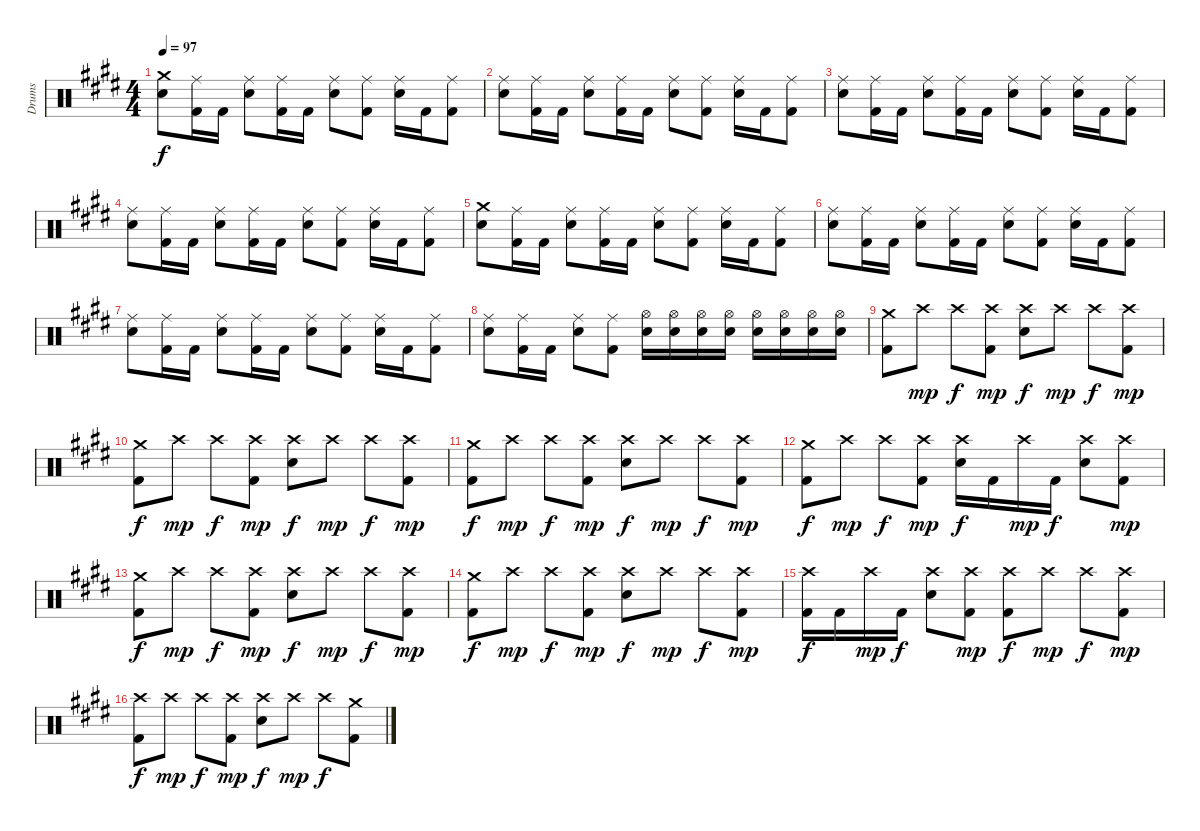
\track ("Drums" "Drums") {instrument percussion}
\staff {score}
\articulation defaults
\ts (4 4)
\tempo 97
\clef neutral
\ks e
("Electric Snare (hit)" "Crash medium (hit)").8{dy f} ("Ride (middle)" "Kick (hit) 2").16 "Kick (hit) 2".16 ("Ride (middle)" "Electric Snare (hit)").8 ("Ride (middle)" "Kick (hit) 2").16 "Kick (hit) 2".16 ("Ride (middle)" "Electric Snare (hit)").8 ("Kick (hit) 2" "Ride (middle)").8 ("Electric Snare (hit)" "Ride (middle)").16 "Kick (hit) 2".16 ("Kick (hit) 2" "Ride (middle)").8 |
("Ride (middle)" "Electric Snare (hit)").8 ("Ride (middle)" "Kick (hit) 2").16 "Kick (hit) 2".16 ("Ride (middle)" "Electric Snare (hit)").8 ("Ride (middle)" "Kick (hit) 2").16 "Kick (hit) 2".16 ("Ride (middle)" "Electric Snare (hit)").8 ("Kick (hit) 2" "Ride (middle)").8 ("Electric Snare (hit)" "Ride (middle)").16 "Kick (hit) 2".16 ("Kick (hit) 2" "Ride (middle)").8 |
("Ride (middle)" "Electric Snare (hit)").8 ("Ride (middle)" "Kick (hit) 2").16 "Kick (hit) 2".16 ("Ride (middle)" "Electric Snare (hit)").8 ("Ride (middle)" "Kick (hit) 2").16 "Kick (hit) 2".16 ("Ride (middle)" "Electric Snare (hit)").8 ("Kick (hit) 2" "Ride (middle)").8 ("Electric Snare (hit)" "Ride (middle)").16 "Kick (hit) 2".16 ("Kick (hit) 2" "Ride (middle)").8 |
("Ride (middle)" "Electric Snare (hit)").8 ("Ride (middle)" "Kick (hit) 2").16 "Kick (hit) 2".16 ("Ride (middle)" "Electric Snare (hit)").8 ("Ride (middle)" "Kick (hit) 2").16 "Kick (hit) 2".16 ("Ride (middle)" "Electric Snare (hit)").8 ("Kick (hit) 2" "Ride (middle)").8 ("Electric Snare (hit)" "Ride (middle)").16 "Kick (hit) 2".16 ("Kick (hit) 2" "Ride (middle)").8 |
("Electric Snare (hit)" "Crash medium (hit)").8 ("Ride (middle)" "Kick (hit) 2").16 "Kick (hit) 2".16 ("Ride (middle)" "Electric Snare (hit)").8 ("Ride (middle)" "Kick (hit) 2").16 "Kick (hit) 2".16 ("Ride (middle)" "Electric Snare (hit)").8 ("Kick (hit) 2" "Ride (middle)").8 ("Electric Snare (hit)" "Ride (middle)").16 "Kick (hit) 2".16 ("Kick (hit) 2" "Ride (middle)").8 |
("Ride (middle)" "Electric Snare (hit)").8 ("Ride (middle)" "Kick (hit) 2").16 "Kick (hit) 2".16 ("Ride (middle)" "Electric Snare (hit)").8 ("Ride (middle)" "Kick (hit) 2").16 "Kick (hit) 2".16 ("Ride (middle)" "Electric Snare (hit)").8 ("Kick (hit) 2" "Ride (middle)").8 ("Electric Snare (hit)" "Ride (middle)").16 "Kick (hit) 2".16 ("Kick (hit) 2" "Ride (middle)").8 |
("Ride (middle)" "Electric Snare (hit)").8 ("Ride (middle)" "Kick (hit) 2").16 "Kick (hit) 2".16 ("Ride (middle)" "Electric Snare (hit)").8 ("Ride (middle)" "Kick (hit) 2").16 "Kick (hit) 2".16 ("Ride (middle)" "Electric Snare (hit)").8 ("Kick (hit) 2" "Ride (middle)").8 ("Electric Snare (hit)" "Ride (middle)").16 "Kick (hit) 2".16 ("Kick (hit) 2" "Ride (middle)").8 |
("Ride (middle)" "Electric Snare (hit)").8 ("Ride (middle)" "Kick (hit) 2").16 "Kick (hit) 2".16 ("Ride (middle)" "Electric Snare (hit)").8 ("Ride (middle)" "Kick (hit) 2").8 ("Electric Snare (hit)" "Hi-Hat (open)").16 ("Electric Snare (hit)" "Hi-Hat (open)").16 ("Electric Snare (hit)" "Hi-Hat (open)").16 ("Electric Snare (hit)" "Hi-Hat (open)").16 ("Electric Snare (hit)" "Hi-Hat (open)").16 ("Electric Snare (hit)" "Hi-Hat (open)").16 ("Electric Snare (hit)" "Hi-Hat (open)").16 ("Electric Snare (hit)" "Hi-Hat (open)").16 |
("Crash medium (hit)" "Kick (hit) 2").8 "Crash high (hit)".8{dy mp} "Crash high (hit)".8{dy f} ("Crash high (hit)" "Kick (hit) 2").8{dy mp} ("Crash high (hit)" "Electric Snare (hit)").8{dy f} "Crash high (hit)".8{dy mp} "Crash high (hit)".8{dy f} ("Crash high (hit)" "Kick (hit) 2").8{dy mp} |
("Crash medium (hit)" "Kick (hit) 2").8{dy f} "Crash high (hit)".8{dy mp} "Crash high (hit)".8{dy f} ("Crash high (hit)" "Kick (hit) 2").8{dy mp} ("Crash high (hit)" "Electric Snare (hit)").8{dy f} "Crash high (hit)".8{dy mp} "Crash high (hit)".8{dy f} ("Crash high (hit)" "Kick (hit) 2").8{dy mp} |
("Crash medium (hit)" "Kick (hit) 2").8{dy f} "Crash high (hit)".8{dy mp} "Crash high (hit)".8{dy f} ("Crash high (hit)" "Kick (hit) 2").8{dy mp} ("Crash high (hit)" "Electric Snare (hit)").8{dy f} "Crash high (hit)".8{dy mp} "Crash high (hit)".8{dy f} ("Crash high (hit)" "Kick (hit) 2").8{dy mp} |
("Crash medium (hit)" "Kick (hit) 2").8{dy f} "Crash high (hit)".8{dy mp} "Crash high (hit)".8{dy f} ("Crash high (hit)" "Kick (hit) 2").8{dy mp} ("Crash high (hit)" "Electric Snare (hit)").16{dy f} "Kick (hit) 2".16 "Crash high (hit)".16{dy mp} "Kick (hit) 2".16{dy f} ("Electric Snare (hit)" "Crash high (hit)").8 ("Kick (hit) 2" "Crash high (hit)").8{dy mp} |
("Crash medium (hit)" "Kick (hit) 2").8{dy f} "Crash high (hit)".8{dy mp} "Crash high (hit)".8{dy f} ("Crash high (hit)" "Kick (hit) 2").8{dy mp} ("Crash high (hit)" "Electric Snare (hit)").8{dy f} "Crash high (hit)".8{dy mp} "Crash high (hit)".8{dy f} ("Crash high (hit)" "Kick (hit) 2").8{dy mp} |
("Crash medium (hit)" "Kick (hit) 2").8{dy f} "Crash high (hit)".8{dy mp} "Crash high (hit)".8{dy f} ("Crash high (hit)" "Kick (hit) 2").8{dy mp} ("Crash high (hit)" "Electric Snare (hit)").8{dy f} "Crash high (hit)".8{dy mp} "Crash high (hit)".8{dy f} ("Crash high (hit)" "Kick (hit) 2").8{dy mp} |
("Kick (hit) 2" "Crash high (hit)").16{dy f} "Kick (hit) 2".16 "Crash high (hit)".16{dy mp} "Kick (hit) 2".16{dy f} ("Electric Snare (hit)" "Crash high (hit)").8 ("Kick (hit) 2" "Crash high (hit)").8{dy mp} ("Crash high (hit)" "Kick (hit) 2").8{dy f} "Crash high (hit)".8{dy mp} "Crash high (hit)".8{dy f} ("Kick (hit) 2" "Crash high (hit)").8{dy mp} |
("Crash high (hit)" "Kick (hit) 2").8{dy f} "Crash high (hit)".8{dy mp} "Crash high (hit)".8{dy f} ("Crash high (hit)" "Kick (hit) 2").8{dy mp} ("Crash high (hit)" "Electric Snare (hit)").8{dy f} "Crash high (hit)".8{dy mp} "Crash high (hit)".8{dy f} ("Crash medium (hit)" "Kick (hit) 2").8
